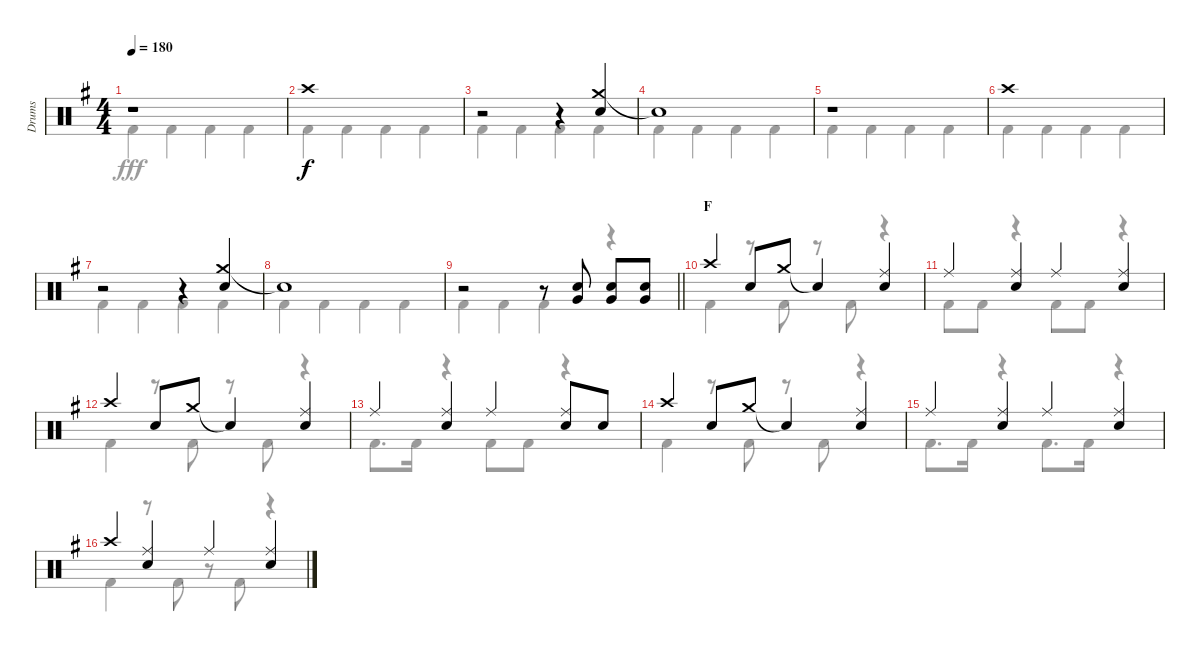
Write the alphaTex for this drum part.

\track ("Drums" "Drums") {instrument percussion}
\staff {score}
\articulation defaults
\voice
\ts (4 4)
\tempo 180
\clef neutral
\ks g
r.1{dy f} |
"Crash high (hit)".1 |
r.2 r.4 ("Crash medium (hit)" "Snare (hit) 2").4 |
"Snare (hit)"{t}.1 |
r.1 |
"Crash high (hit)".1 |
r.2 r.4 ("Crash medium (hit)" "Snare (hit) 2").4 |
"Snare (hit)"{t}.1 |
\barLineRight lightlight
r.2 r.8 ("Snare (hit) 2" "Very Low Tom (hit)").8 ("Snare (hit) 2" "Very Low Tom (hit)").8 ("Snare (hit) 2" "Very Low Tom (hit)").8 |
\section ("" "F")
"Crash high (hit)".4 "Snare (hit) 2".8 "Crash medium (hit)".8 "Snare (hit)"{t}.4 ("Ride (middle)" "Snare (hit) 2").4 |
"Ride (middle)".4 ("Ride (middle)" "Snare (hit) 2").4 "Ride (middle)".4 ("Ride (middle)" "Snare (hit) 2").4 |
"Crash high (hit)".4 "Snare (hit) 2".8 "Crash medium (hit)".8 "Snare (hit)"{t}.4 ("Ride (middle)" "Snare (hit) 2").4 |
"Ride (middle)".4 ("Ride (middle)" "Snare (hit) 2").4 "Ride (middle)".4 ("Ride (middle)" "Snare (hit) 2").8 "Snare (hit) 2".8 |
"Crash high (hit)".4 "Snare (hit) 2".8 "Crash medium (hit)".8 "Snare (hit)"{t}.4 ("Ride (middle)" "Snare (hit) 2").4 |
"Ride (middle)".4 ("Ride (middle)" "Snare (hit) 2").4 "Ride (middle)".4 ("Ride (middle)" "Snare (hit) 2").4 |
"Crash high (hit)".4 ("Ride (middle)" "Snare (hit) 2").4 "Ride (middle)".4 ("Ride (middle)" "Snare (hit) 2").4
\voice
\clef neutral
\ottava regular
\simile none
\ks g "Kick (hit) 2".4{dy fff} "Kick (hit) 2".4 "Kick (hit) 2".4 "Kick (hit) 2".4
|
"Kick (hit) 2".4 "Kick (hit) 2".4 "Kick (hit) 2".4 "Kick (hit) 2".4 |
"Kick (hit) 2".4 "Kick (hit) 2".4 "Kick (hit) 2".4 "Kick (hit) 2".4 |
"Kick (hit) 2".4 "Kick (hit) 2".4 "Kick (hit) 2".4 "Kick (hit) 2".4 |
"Kick (hit) 2".4 "Kick (hit) 2".4 "Kick (hit) 2".4 "Kick (hit) 2".4 |
"Kick (hit) 2".4 "Kick (hit) 2".4 "Kick (hit) 2".4 "Kick (hit) 2".4 |
"Kick (hit) 2".4 "Kick (hit) 2".4 "Kick (hit) 2".4 "Kick (hit) 2".4 |
"Kick (hit) 2".4 "Kick (hit) 2".4 "Kick (hit) 2".4 "Kick (hit) 2".4 |
\barLineRight lightlight "Kick (hit) 2".4 "Kick (hit) 2".4 "Kick (hit) 2".4
r.4 |
"Kick (hit) 2".4 r.8 "Kick (hit) 2".8 r.8 "Kick (hit) 2".8 r.4 |
"Kick (hit) 2".8 "Kick (hit) 2".8 r.4 "Kick (hit) 2".8 "Kick (hit) 2".8 r.4 |
"Kick (hit) 2".4 r.8 "Kick (hit) 2".8 r.8 "Kick (hit) 2".8 r.4 |
"Kick (hit) 2".8{d} "Kick (hit) 2".16 r.4 "Kick (hit) 2".8 "Kick (hit) 2".8 r.4 |
"Kick (hit) 2".4 r.8 "Kick (hit) 2".8 r.8 "Kick (hit) 2".8 r.4 |
"Kick (hit) 2".8{d} "Kick (hit) 2".16 r.4 "Kick (hit) 2".8{d} "Kick (hit) 2".16 r.4 |
"Kick (hit) 2".4 r.8 "Kick (hit) 2".8 r.8 "Kick (hit) 2".8 r.4
